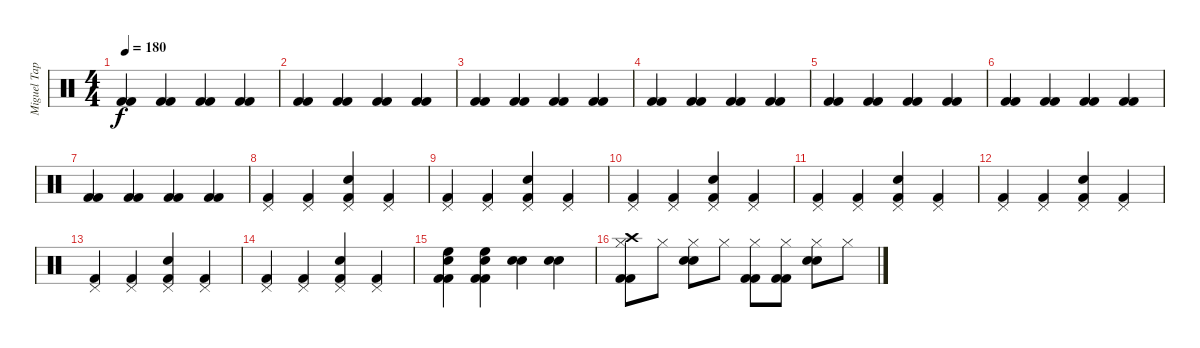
\track ("Miguel Tapia" "Miguel Tap") {instrument percussion}
\staff {score}
\articulation defaults
\ts (4 4)
\tempo 180
\clef neutral
\ks c
("Kick (hit) 2" "Kick (hit) 2").4{dy f} ("Kick (hit) 2" "Kick (hit) 2").4 ("Kick (hit) 2" "Kick (hit) 2").4 ("Kick (hit) 2" "Kick (hit) 2").4 |
("Kick (hit) 2" "Kick (hit) 2").4 ("Kick (hit) 2" "Kick (hit) 2").4 ("Kick (hit) 2" "Kick (hit) 2").4 ("Kick (hit) 2" "Kick (hit) 2").4 |
("Kick (hit) 2" "Kick (hit) 2").4 ("Kick (hit) 2" "Kick (hit) 2").4 ("Kick (hit) 2" "Kick (hit) 2").4 ("Kick (hit) 2" "Kick (hit) 2").4 |
("Kick (hit) 2" "Kick (hit) 2").4 ("Kick (hit) 2" "Kick (hit) 2").4 ("Kick (hit) 2" "Kick (hit) 2").4 ("Kick (hit) 2" "Kick (hit) 2").4 |
("Kick (hit) 2" "Kick (hit) 2").4 ("Kick (hit) 2" "Kick (hit) 2").4 ("Kick (hit) 2" "Kick (hit) 2").4 ("Kick (hit) 2" "Kick (hit) 2").4 |
("Kick (hit) 2" "Kick (hit) 2").4 ("Kick (hit) 2" "Kick (hit) 2").4 ("Kick (hit) 2" "Kick (hit) 2").4 ("Kick (hit) 2" "Kick (hit) 2").4 |
("Kick (hit) 2" "Kick (hit) 2").4 ("Kick (hit) 2" "Kick (hit) 2").4 ("Kick (hit) 2" "Kick (hit) 2").4 ("Kick (hit) 2" "Kick (hit) 2").4 |
("Kick (hit) 2" "Pedal Hi-Hat (hit)").4 ("Kick (hit) 2" "Pedal Hi-Hat (hit)").4 ("Kick (hit) 2" "Electric Snare (hit)" "Pedal Hi-Hat (hit)").4 ("Kick (hit) 2" "Pedal Hi-Hat (hit)").4 |
("Pedal Hi-Hat (hit)" "Kick (hit) 2").4 ("Pedal Hi-Hat (hit)" "Kick (hit) 2").4 ("Kick (hit) 2" "Pedal Hi-Hat (hit)" "Electric Snare (hit)").4 ("Pedal Hi-Hat (hit)" "Kick (hit) 2").4 |
("Pedal Hi-Hat (hit)" "Kick (hit) 2").4 ("Pedal Hi-Hat (hit)" "Kick (hit) 2").4 ("Electric Snare (hit)" "Pedal Hi-Hat (hit)" "Kick (hit) 2").4 ("Pedal Hi-Hat (hit)" "Kick (hit) 2").4 |
("Pedal Hi-Hat (hit)" "Kick (hit) 2").4 ("Pedal Hi-Hat (hit)" "Kick (hit) 2").4 ("Electric Snare (hit)" "Pedal Hi-Hat (hit)" "Kick (hit) 2").4 ("Pedal Hi-Hat (hit)" "Kick (hit) 2").4 |
("Pedal Hi-Hat (hit)" "Kick (hit) 2").4 ("Pedal Hi-Hat (hit)" "Kick (hit) 2").4 ("Electric Snare (hit)" "Pedal Hi-Hat (hit)" "Kick (hit) 2").4 ("Pedal Hi-Hat (hit)" "Kick (hit) 2").4 |
("Kick (hit) 2" "Pedal Hi-Hat (hit)").4 ("Kick (hit) 2" "Pedal Hi-Hat (hit)").4 ("Kick (hit) 2" "Pedal Hi-Hat (hit)" "Electric Snare (hit)").4 ("Pedal Hi-Hat (hit)" "Kick (hit) 2").4 |
("Kick (hit) 2" "Pedal Hi-Hat (hit)").4 ("Kick (hit) 2" "Pedal Hi-Hat (hit)").4 ("Kick (hit) 2" "Pedal Hi-Hat (hit)" "Electric Snare (hit)").4 ("Kick (hit) 2" "Pedal Hi-Hat (hit)").4 |
("Electric Snare (hit)" "High Floor Tom (hit)" "Kick (hit) 2" "Kick (hit) 2").4 ("Electric Snare (hit)" "High Floor Tom (hit)" "Kick (hit) 2" "Kick (hit) 2").4 ("Electric Snare (hit)" "Electric Snare (hit)").4 ("Electric Snare (hit)" "Electric Snare (hit)").4 |
("Hi-Hat (closed)" "Kick (hit) 2" "Kick (hit) 2" "Crash high (hit)").8 "Hi-Hat (closed)".8 ("Hi-Hat (closed)" "Electric Snare (hit)" "Electric Snare (hit)").8 "Hi-Hat (closed)".8 ("Hi-Hat (closed)" "Kick (hit) 2" "Kick (hit) 2").8 ("Hi-Hat (closed)" "Kick (hit) 2" "Kick (hit) 2").8 ("Hi-Hat (closed)" "Electric Snare (hit)" "Electric Snare (hit)").8 "Hi-Hat (closed)".8
